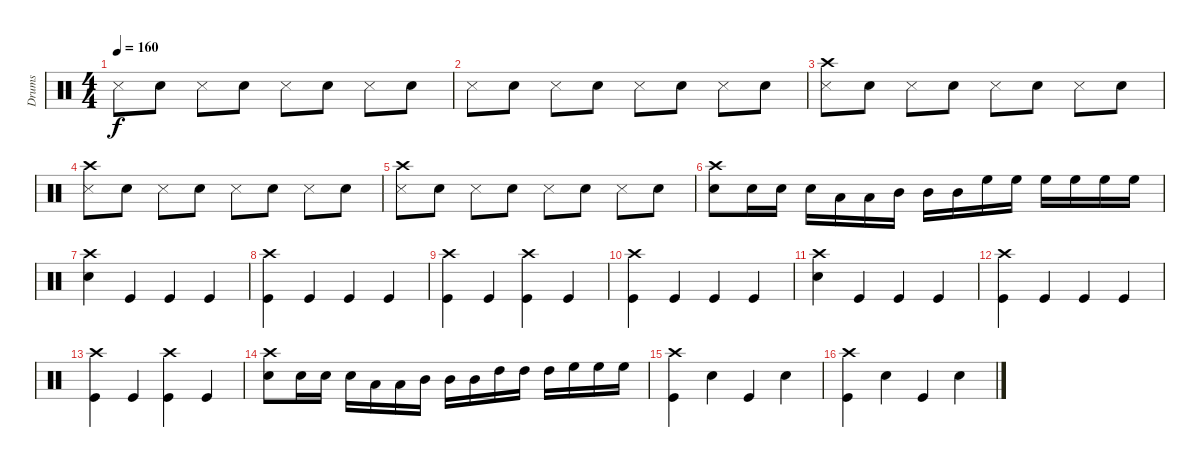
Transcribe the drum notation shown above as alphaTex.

\track ("Drums " "Drums ") {instrument percussion}
\staff {score}
\articulation defaults
\ts (4 4)
\tempo 160
\clef neutral
\ks c "Metronome (hit)".8{dy f} "Snare (hit) 2".8 "Metronome (hit)".8 "Snare (hit) 2".8 "Metronome (hit)".8 "Snare (hit) 2".8 "Metronome (hit)".8 "Snare (hit) 2".8
|
"Metronome (hit)".8 "Snare (hit) 2".8 "Metronome (hit)".8 "Snare (hit) 2".8 "Metronome (hit)".8 "Snare (hit) 2".8 "Metronome (hit)".8 "Snare (hit) 2".8 |
("Crash high (hit)" "Metronome (hit)").8 "Snare (hit) 2".8 "Metronome (hit)".8 "Snare (hit) 2".8 "Metronome (hit)".8 "Snare (hit) 2".8 "Metronome (hit)".8 "Snare (hit) 2".8 |
("Crash high (hit)" "Metronome (hit)").8 "Snare (hit) 2".8 "Metronome (hit)".8 "Snare (hit) 2".8 "Metronome (hit)".8 "Snare (hit) 2".8 "Metronome (hit)".8 "Snare (hit) 2".8 |
("Crash high (hit)" "Metronome (hit)").8 "Snare (hit) 2".8 "Metronome (hit)".8 "Snare (hit) 2".8 "Metronome (hit)".8 "Snare (hit) 2".8 "Metronome (hit)".8 "Snare (hit) 2".8 |
("Crash high (hit)" "Snare (hit) 2").8 "Electric Snare (hit)".16 "Electric Snare (hit)".16 "Electric Snare (hit)".16 "Low Tom (hit)".16 "Low Tom (hit)".16 "Mid Tom (hit)".16 "Mid Tom (hit)".16 "Mid Tom (hit)".16 "High Floor Tom (hit)".16 "High Floor Tom (hit)".16 "High Floor Tom (hit)".16 "High Floor Tom (hit)".16 "High Floor Tom (hit)".16 "High Floor Tom (hit)".16 |
("Crash high (hit)" "Snare (hit) 2").4 "Kick (hit)".4 "Kick (hit)".4 "Kick (hit)".4 |
("Crash high (hit)" "Kick (hit)").4 "Kick (hit)".4 "Kick (hit)".4 "Kick (hit)".4 |
("Crash high (hit)" "Kick (hit)").4 "Kick (hit)".4 ("Crash high (hit)" "Kick (hit)").4 "Kick (hit)".4 |
("Crash high (hit)" "Kick (hit)").4 "Kick (hit)".4 "Kick (hit)".4 "Kick (hit)".4 |
("Crash high (hit)" "Snare (hit) 2").4 "Kick (hit)".4 "Kick (hit)".4 "Kick (hit)".4 |
("Crash high (hit)" "Kick (hit)").4 "Kick (hit)".4 "Kick (hit)".4 "Kick (hit)".4 |
("Crash high (hit)" "Kick (hit)").4 "Kick (hit)".4 ("Crash high (hit)" "Kick (hit)").4 "Kick (hit)".4 |
("Crash high (hit)" "Snare (hit) 2").8 "Electric Snare (hit)".16 "Electric Snare (hit)".16 "Electric Snare (hit)".16 "Low Tom (hit)".16 "Low Tom (hit)".16 "Mid Tom (hit)".16 "Mid Tom (hit)".16 "Mid Tom (hit)".16 "High Tom (hit)".16 "High Tom (hit)".16 "High Tom (hit)".16 "High Floor Tom (hit)".16 "High Floor Tom (hit)".16 "High Floor Tom (hit)".16 |
("Crash high (hit)" "Kick (hit)").4 "Snare (hit) 2".4 "Kick (hit)".4 "Snare (hit) 2".4 |
("Crash high (hit)" "Kick (hit)").4 "Snare (hit) 2".4 "Kick (hit)".4 "Snare (hit) 2".4
